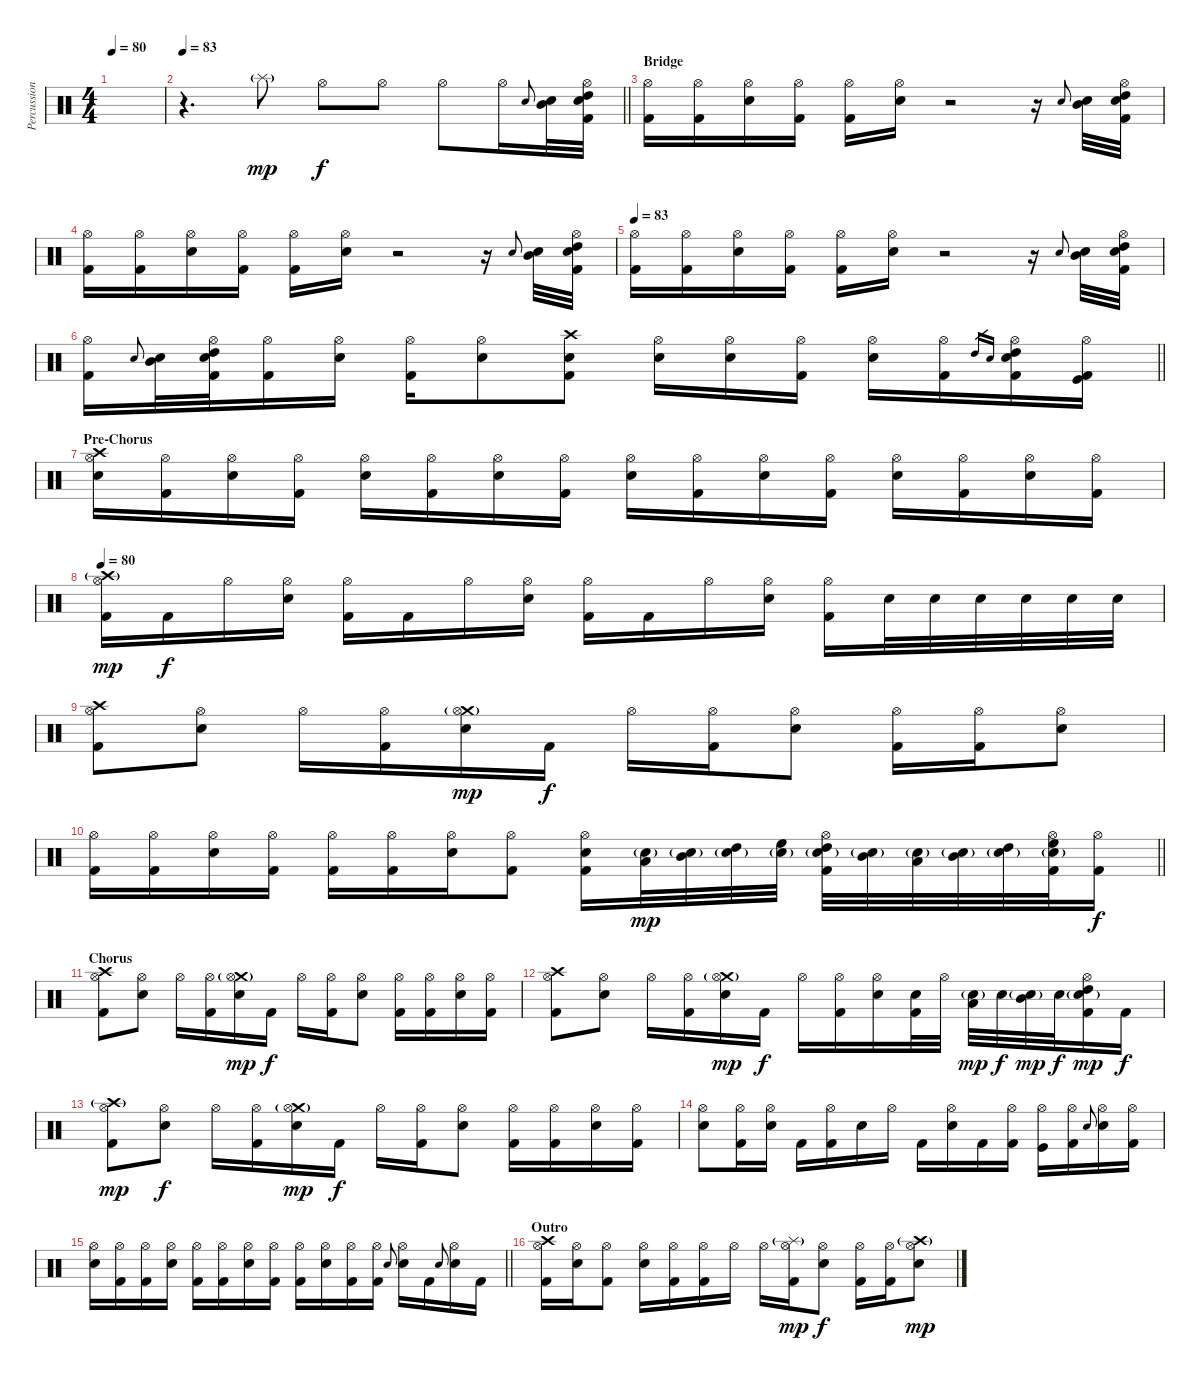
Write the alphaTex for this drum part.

\track ("Percussion" "Percussion") {instrument percussion}
\staff {score}
\articulation defaults
\ts (4 4)
\tempo 80
\clef neutral
\ks c
|
\tempo 83
\barLineRight lightlight
r.4{d} "Splash (hit)"{g}.8{dy mp} "Hi-Hat (open)".8{dy f} "Hi-Hat (open)".8 "Hi-Hat (open)".8 "Hi-Hat (open)".16 "Snare (hit) 2".8{gr onbeat} ("Mid Tom (hit)" "Snare (hit) 2").32 ("Hi-Hat (open)" "High Tom (hit)" "Snare (hit) 2" "Kick (hit) 2").32 |
\section ("" "Bridge")
("Hi-Hat (open)" "Kick (hit) 2").16 ("Hi-Hat (open)" "Kick (hit) 2").16 ("Hi-Hat (open)" "Snare (hit) 2").16 ("Hi-Hat (open)" "Kick (hit) 2").16 ("Hi-Hat (open)" "Kick (hit) 2").16 ("Hi-Hat (open)" "Snare (hit) 2").16 r.2 r.16 "Snare (hit) 2".8{gr onbeat} ("Mid Tom (hit)" "Snare (hit) 2").32 ("Hi-Hat (open)" "High Tom (hit)" "Snare (hit) 2" "Kick (hit) 2").32 |
("Hi-Hat (open)" "Kick (hit) 2").16 ("Hi-Hat (open)" "Kick (hit) 2").16 ("Hi-Hat (open)" "Snare (hit) 2").16 ("Hi-Hat (open)" "Kick (hit) 2").16 ("Hi-Hat (open)" "Kick (hit) 2").16 ("Hi-Hat (open)" "Snare (hit) 2").16 r.2 r.16 "Snare (hit) 2".8{gr onbeat} ("Mid Tom (hit)" "Snare (hit) 2").32 ("Hi-Hat (open)" "High Tom (hit)" "Snare (hit) 2" "Kick (hit) 2").32 |
\tempo 83
("Hi-Hat (open)" "Kick (hit) 2").16 ("Hi-Hat (open)" "Kick (hit) 2").16 ("Hi-Hat (open)" "Snare (hit) 2").16 ("Hi-Hat (open)" "Kick (hit) 2").16 ("Hi-Hat (open)" "Kick (hit) 2").16 ("Hi-Hat (open)" "Snare (hit) 2").16 r.2 r.16 "Snare (hit) 2".8{gr onbeat} ("Mid Tom (hit)" "Snare (hit) 2").32 ("Hi-Hat (open)" "High Tom (hit)" "Snare (hit) 2" "Kick (hit) 2").32 |
\barLineRight lightlight
("Hi-Hat (open)" "Kick (hit) 2").16 "Electric Snare (hit)".8{gr onbeat} ("Mid Tom (hit)" "Electric Snare (hit)").32 ("Hi-Hat (open)" "High Tom (hit)" "Snare (hit) 2" "Kick (hit) 2").32 ("Hi-Hat (open)" "Kick (hit) 2").16 ("Hi-Hat (open)" "Snare (hit) 2").16 ("Hi-Hat (open)" "Kick (hit) 2").16 ("Hi-Hat (open)" "Snare (hit) 2").8 ("Crash high (hit)" "Snare (hit) 2" "Kick (hit) 2").8 ("Hi-Hat (open)" "Snare (hit) 2").16 ("Hi-Hat (open)" "Snare (hit) 2").16 ("Hi-Hat (open)" "Kick (hit) 2").16 ("Hi-Hat (open)" "Snare (hit) 2").16 ("Hi-Hat (open)" "Kick (hit) 2").16 "High Tom (hit)".16{gr} "Snare (hit) 2".16{gr} ("Hi-Hat (open)" "High Tom (hit)" "Snare (hit) 2" "Kick (hit) 2").16 ("Hi-Hat (open)" "Kick (hit)" "Kick (hit) 2").16 |
\section ("" "Pre-Chorus")
("Crash high (hit)" "Hi-Hat (open)" "Snare (hit) 2").16 ("Hi-Hat (open)" "Kick (hit) 2").16 ("Hi-Hat (open)" "Snare (hit) 2").16 ("Hi-Hat (open)" "Kick (hit) 2").16 ("Hi-Hat (open)" "Snare (hit) 2").16 ("Hi-Hat (open)" "Kick (hit) 2").16 ("Hi-Hat (open)" "Snare (hit) 2").16 ("Hi-Hat (open)" "Kick (hit) 2").16 ("Hi-Hat (open)" "Snare (hit) 2").16 ("Hi-Hat (open)" "Kick (hit) 2").16 ("Hi-Hat (open)" "Snare (hit) 2").16 ("Hi-Hat (open)" "Kick (hit) 2").16 ("Hi-Hat (open)" "Snare (hit) 2").16 ("Hi-Hat (open)" "Kick (hit) 2").16 ("Hi-Hat (open)" "Snare (hit) 2").16 ("Hi-Hat (open)" "Kick (hit) 2").16 |
\tempo 80
("Crash high (hit)"{g} "Hi-Hat (open)" "Kick (hit) 2").16{dy mp} "Kick (hit) 2".16{dy f} "Hi-Hat (open)".16 ("Hi-Hat (open)" "Snare (hit) 2").16 ("Hi-Hat (open)" "Kick (hit) 2").16 "Kick (hit) 2".16 "Hi-Hat (open)".16 ("Hi-Hat (open)" "Snare (hit) 2").16 ("Hi-Hat (open)" "Kick (hit) 2").16 "Kick (hit) 2".16 "Hi-Hat (open)".16 ("Hi-Hat (open)" "Snare (hit) 2").16 ("Hi-Hat (open)" "Kick (hit) 2").16 "Snare (hit) 2".32 "Snare (hit) 2".32 "Snare (hit) 2".32 "Snare (hit) 2".32 "Snare (hit) 2".32 "Snare (hit) 2".32 |
("Crash high (hit)" "Hi-Hat (open)" "Kick (hit) 2").8 ("Hi-Hat (open)" "Snare (hit) 2").8 "Hi-Hat (open)".16 ("Hi-Hat (open)" "Kick (hit) 2").16 ("Crash medium (hit)"{g} "Hi-Hat (open)" "Snare (hit) 2").16{dy mp} "Kick (hit) 2".16{dy f} "Hi-Hat (open)".16 ("Hi-Hat (open)" "Kick (hit) 2").16 ("Hi-Hat (open)" "Snare (hit) 2").8 ("Hi-Hat (open)" "Kick (hit) 2").16 ("Hi-Hat (open)" "Kick (hit) 2").16 ("Hi-Hat (open)" "Snare (hit) 2").8 |
\barLineRight lightlight
("Hi-Hat (open)" "Kick (hit) 2").16 ("Hi-Hat (open)" "Kick (hit) 2").16 ("Hi-Hat (open)" "Snare (hit) 2").16 ("Hi-Hat (open)" "Kick (hit) 2").16 ("Hi-Hat (open)" "Kick (hit) 2").16 ("Hi-Hat (open)" "Kick (hit) 2").16 ("Hi-Hat (open)" "Snare (hit) 2").16 ("Hi-Hat (open)" "Kick (hit) 2").8 ("Hi-Hat (open)" "Electric Snare (hit)" "Kick (hit) 2").16 ("Low Tom (hit)" "Snare (hit) 2"{g}).32{dy mp} ("Mid Tom (hit)" "Electric Snare (hit)"{g}).32 ("High Tom (hit)" "Snare (hit) 2"{g}).32 ("High Floor Tom (hit)" "Electric Snare (hit)"{g}).32 ("Hi-Hat (open)" "High Tom (hit)" "Snare (hit) 2"{g} "Kick (hit) 2").32 ("Mid Tom (hit)" "Electric Snare (hit)"{g}).32 ("Low Tom (hit)" "Snare (hit) 2"{g}).32 ("Mid Tom (hit)" "Electric Snare (hit)"{g}).32 ("High Tom (hit)" "Snare (hit) 2"{g}).32 ("Hi-Hat (open)" "High Floor Tom (hit)" "Electric Snare (hit)"{g} "Kick (hit) 2").32 ("Hi-Hat (open)" "Kick (hit) 2").16{dy f} |
\section ("" "Chorus")
("Crash high (hit)" "Hi-Hat (open)" "Kick (hit) 2").8 ("Hi-Hat (open)" "Snare (hit) 2").8 "Hi-Hat (open)".16 ("Hi-Hat (open)" "Kick (hit) 2").16 ("Crash medium (hit)"{g} "Hi-Hat (open)" "Snare (hit) 2").16{dy mp} "Kick (hit) 2".16{dy f} "Hi-Hat (open)".16 ("Hi-Hat (open)" "Kick (hit) 2").16 ("Hi-Hat (open)" "Snare (hit) 2").8 ("Hi-Hat (open)" "Kick (hit) 2").16 ("Hi-Hat (open)" "Kick (hit) 2").16 ("Hi-Hat (open)" "Snare (hit) 2").16 ("Hi-Hat (open)" "Kick (hit) 2").16 |
("Crash high (hit)" "Hi-Hat (open)" "Kick (hit) 2").8 ("Hi-Hat (open)" "Snare (hit) 2").8 "Hi-Hat (open)".16 ("Hi-Hat (open)" "Kick (hit) 2").16 ("Crash medium (hit)"{g} "Hi-Hat (open)" "Snare (hit) 2").16{dy mp} "Kick (hit) 2".16{dy f} "Hi-Hat (open)".16 ("Hi-Hat (open)" "Kick (hit) 2").16 ("Hi-Hat (open)" "Snare (hit) 2").16 ("Snare (hit) 2" "Kick (hit) 2").32 "Hi-Hat (open)".32 ("Low Tom (hit)" "Snare (hit) 2"{g}).32{dy mp} "Electric Snare (hit)".32{dy f} ("Mid Tom (hit)" "Snare (hit) 2"{g}).32{dy mp} "Electric Snare (hit)".32{dy f} ("Hi-Hat (open)" "High Tom (hit)" "Snare (hit) 2"{g} "Kick (hit) 2").16{dy mp} "Kick (hit) 2".16{dy f} |
("Crash high (hit)"{g} "Hi-Hat (open)" "Kick (hit) 2").8{dy mp} ("Hi-Hat (open)" "Snare (hit) 2").8{dy f} "Hi-Hat (open)".16 ("Hi-Hat (open)" "Kick (hit) 2").16 ("Crash medium (hit)"{g} "Hi-Hat (open)" "Snare (hit) 2").16{dy mp} "Kick (hit) 2".16{dy f} "Hi-Hat (open)".16 ("Hi-Hat (open)" "Kick (hit) 2").16 ("Hi-Hat (open)" "Snare (hit) 2").8 ("Hi-Hat (open)" "Kick (hit) 2").16 ("Hi-Hat (open)" "Kick (hit) 2").16 ("Hi-Hat (open)" "Snare (hit) 2").16 ("Hi-Hat (open)" "Kick (hit) 2").16 |
("Hi-Hat (open)" "Snare (hit) 2").8 ("Hi-Hat (open)" "Kick (hit) 2").16 ("Hi-Hat (open)" "Snare (hit) 2").16 "Kick (hit) 2".16 ("Hi-Hat (open)" "Kick (hit) 2").16 "Snare (hit) 2".16 "Hi-Hat (open)".16 "Kick (hit) 2".16 ("Hi-Hat (open)" "Snare (hit) 2").16 "Kick (hit) 2".16 ("Hi-Hat (open)" "Kick (hit) 2").16 ("Hi-Hat (open)" "Kick (hit)").16 ("Hi-Hat (open)" "Kick (hit) 2").16 "Snare (hit) 2".8{gr onbeat} ("Hi-Hat (open)" "Snare (hit) 2").16 ("Hi-Hat (open)" "Kick (hit) 2").16 |
\barLineRight lightlight
("Hi-Hat (open)" "Snare (hit) 2").16 ("Hi-Hat (open)" "Kick (hit) 2").16 ("Hi-Hat (open)" "Kick (hit) 2").16 ("Hi-Hat (open)" "Snare (hit) 2").16 ("Hi-Hat (open)" "Kick (hit) 2").16 ("Hi-Hat (open)" "Kick (hit) 2").16 ("Hi-Hat (open)" "Snare (hit) 2").16 ("Hi-Hat (open)" "Kick (hit) 2").16 ("Hi-Hat (open)" "Kick (hit) 2").16 ("Hi-Hat (open)" "Snare (hit) 2").16 ("Hi-Hat (open)" "Kick (hit) 2").16 ("Hi-Hat (open)" "Kick (hit) 2").16 "Snare (hit) 2".8{gr onbeat} ("Hi-Hat (open)" "Snare (hit) 2").16 "Kick (hit) 2".16 "Snare (hit) 2".8{gr onbeat} ("Hi-Hat (open)" "Snare (hit) 2").16 "Kick (hit) 2".16 |
\section ("" "Outro")
("Crash high (hit)" "Hi-Hat (open)" "Kick (hit) 2").16 ("Hi-Hat (open)" "Snare (hit) 2").16 ("Hi-Hat (open)" "Kick (hit) 2").8 ("Hi-Hat (open)" "Snare (hit) 2").16 ("Hi-Hat (open)" "Kick (hit) 2").16 ("Hi-Hat (open)" "Kick (hit) 2").16 "Hi-Hat (open)".16 "Hi-Hat (open)".16 ("Splash (hit)"{g} "Hi-Hat (open)" "Kick (hit) 2").16{dy mp} ("Hi-Hat (open)" "Snare (hit) 2").8{dy f} ("Hi-Hat (open)" "Kick (hit) 2").16 ("Hi-Hat (open)" "Kick (hit) 2").16 ("Crash high (hit)"{g} "Hi-Hat (open)" "Snare (hit) 2").8{dy mp}
